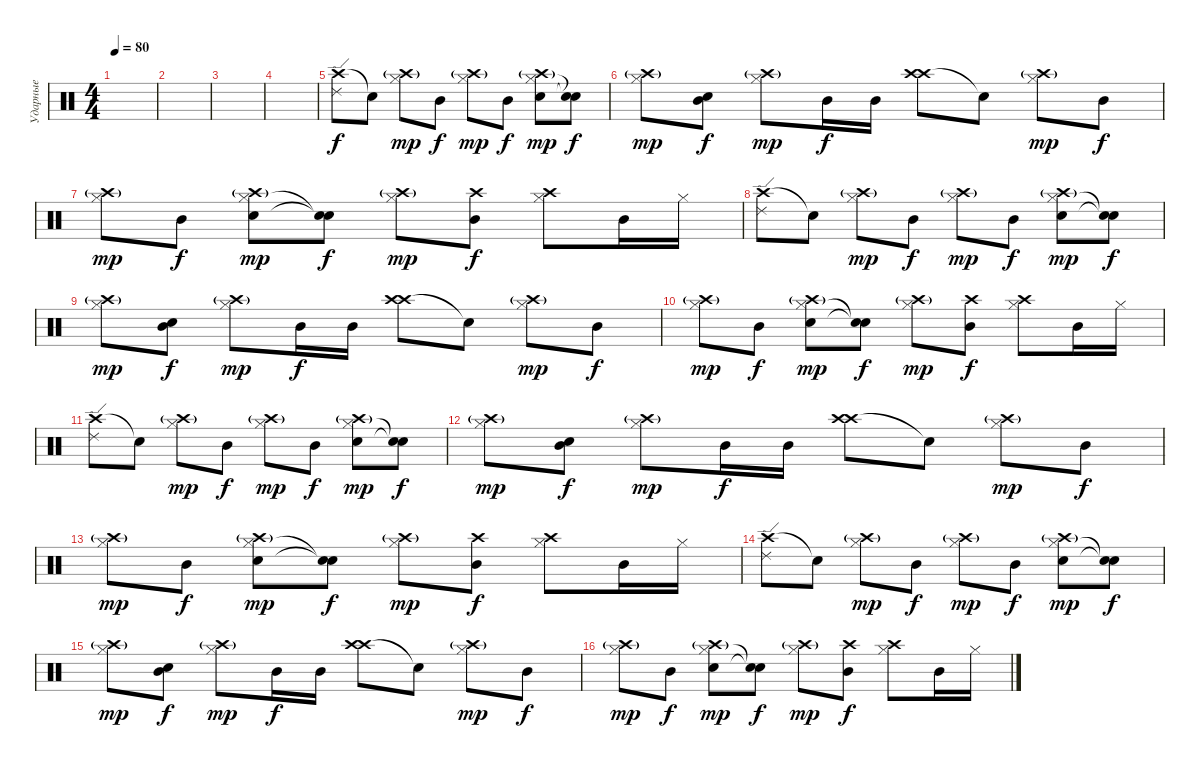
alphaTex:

\track ("Ударные" "Ударные") {instrument percussion}
\staff {score}
\articulation defaults
\ts (4 4)
\tempo 80
\clef neutral
\ks c
|
|
|
|
("Crash high (hit)" "Ride (edge) 2").8 "Snare (hit)"{t}.8 ("Hi-Hat (closed)" "Crash high (hit)"{g}).8{dy mp} "Mid Tom (hit)".8{dy f} ("Hi-Hat (closed)" "Crash high (hit)"{g}).8{dy mp} "Mid Tom (hit)".8{dy f} ("Electric Snare (hit)" "Hi-Hat (closed)" "Crash high (hit)"{g}).8{dy mp} ("Snare (hit)"{t} "Snare (hit)"{t}).8{dy f} |
("Hi-Hat (closed)" "Crash high (hit)"{g}).8{dy mp} ("Mid Tom (hit)" "Electric Snare (hit)").8{dy f} ("Hi-Hat (closed)" "Crash high (hit)"{g}).8{dy mp} "Mid Tom (hit)".16{dy f} "Mid Tom (hit)".16 ("Crash high (hit)" "Crash high (hit)").8 "Snare (hit)"{t}.8 ("Hi-Hat (closed)" "Crash high (hit)"{g}).8{dy mp} "Mid Tom (hit)".8{dy f} |
("Hi-Hat (closed)" "Crash high (hit)"{g}).8{dy mp} "Mid Tom (hit)".8{dy f} ("Electric Snare (hit)" "Hi-Hat (closed)" "Crash high (hit)"{g}).8{dy mp} ("Snare (hit)"{t} "Snare (hit)"{t}).8{dy f} ("Hi-Hat (closed)" "Crash high (hit)"{g}).8{dy mp} ("Mid Tom (hit)" "Crash high (hit)").8{dy f} ("Hi-Hat (closed)" "Crash high (hit)").8 "Mid Tom (hit)".16 "Hi-Hat (closed)".16 |
("Crash high (hit)" "Ride (edge) 2").8 "Snare (hit)"{t}.8 ("Hi-Hat (closed)" "Crash high (hit)"{g}).8{dy mp} "Mid Tom (hit)".8{dy f} ("Hi-Hat (closed)" "Crash high (hit)"{g}).8{dy mp} "Mid Tom (hit)".8{dy f} ("Electric Snare (hit)" "Hi-Hat (closed)" "Crash high (hit)"{g}).8{dy mp} ("Snare (hit)"{t} "Snare (hit)"{t}).8{dy f} |
("Hi-Hat (closed)" "Crash high (hit)"{g}).8{dy mp} ("Mid Tom (hit)" "Electric Snare (hit)").8{dy f} ("Hi-Hat (closed)" "Crash high (hit)"{g}).8{dy mp} "Mid Tom (hit)".16{dy f} "Mid Tom (hit)".16 ("Crash high (hit)" "Crash high (hit)").8 "Snare (hit)"{t}.8 ("Hi-Hat (closed)" "Crash high (hit)"{g}).8{dy mp} "Mid Tom (hit)".8{dy f} |
("Hi-Hat (closed)" "Crash high (hit)"{g}).8{dy mp} "Mid Tom (hit)".8{dy f} ("Electric Snare (hit)" "Hi-Hat (closed)" "Crash high (hit)"{g}).8{dy mp} ("Snare (hit)"{t} "Snare (hit)"{t}).8{dy f} ("Hi-Hat (closed)" "Crash high (hit)"{g}).8{dy mp} ("Mid Tom (hit)" "Crash high (hit)").8{dy f} ("Hi-Hat (closed)" "Crash high (hit)").8 "Mid Tom (hit)".16 "Hi-Hat (closed)".16 |
("Crash high (hit)" "Ride (edge) 2").8 "Snare (hit)"{t}.8 ("Hi-Hat (closed)" "Crash high (hit)"{g}).8{dy mp} "Mid Tom (hit)".8{dy f} ("Hi-Hat (closed)" "Crash high (hit)"{g}).8{dy mp} "Mid Tom (hit)".8{dy f} ("Electric Snare (hit)" "Hi-Hat (closed)" "Crash high (hit)"{g}).8{dy mp} ("Snare (hit)"{t} "Snare (hit)"{t}).8{dy f} |
("Hi-Hat (closed)" "Crash high (hit)"{g}).8{dy mp} ("Mid Tom (hit)" "Electric Snare (hit)").8{dy f} ("Hi-Hat (closed)" "Crash high (hit)"{g}).8{dy mp} "Mid Tom (hit)".16{dy f} "Mid Tom (hit)".16 ("Crash high (hit)" "Crash high (hit)").8 "Snare (hit)"{t}.8 ("Hi-Hat (closed)" "Crash high (hit)"{g}).8{dy mp} "Mid Tom (hit)".8{dy f} |
("Hi-Hat (closed)" "Crash high (hit)"{g}).8{dy mp} "Mid Tom (hit)".8{dy f} ("Electric Snare (hit)" "Hi-Hat (closed)" "Crash high (hit)"{g}).8{dy mp} ("Snare (hit)"{t} "Snare (hit)"{t}).8{dy f} ("Hi-Hat (closed)" "Crash high (hit)"{g}).8{dy mp} ("Mid Tom (hit)" "Crash high (hit)").8{dy f} ("Hi-Hat (closed)" "Crash high (hit)").8 "Mid Tom (hit)".16 "Hi-Hat (closed)".16 |
("Crash high (hit)" "Ride (edge) 2").8 "Snare (hit)"{t}.8 ("Hi-Hat (closed)" "Crash high (hit)"{g}).8{dy mp} "Mid Tom (hit)".8{dy f} ("Hi-Hat (closed)" "Crash high (hit)"{g}).8{dy mp} "Mid Tom (hit)".8{dy f} ("Electric Snare (hit)" "Hi-Hat (closed)" "Crash high (hit)"{g}).8{dy mp} ("Snare (hit)"{t} "Snare (hit)"{t}).8{dy f} |
("Hi-Hat (closed)" "Crash high (hit)"{g}).8{dy mp} ("Mid Tom (hit)" "Electric Snare (hit)").8{dy f} ("Hi-Hat (closed)" "Crash high (hit)"{g}).8{dy mp} "Mid Tom (hit)".16{dy f} "Mid Tom (hit)".16 ("Crash high (hit)" "Crash high (hit)").8 "Snare (hit)"{t}.8 ("Hi-Hat (closed)" "Crash high (hit)"{g}).8{dy mp} "Mid Tom (hit)".8{dy f} |
("Hi-Hat (closed)" "Crash high (hit)"{g}).8{dy mp} "Mid Tom (hit)".8{dy f} ("Electric Snare (hit)" "Hi-Hat (closed)" "Crash high (hit)"{g}).8{dy mp} ("Snare (hit)"{t} "Snare (hit)"{t}).8{dy f} ("Hi-Hat (closed)" "Crash high (hit)"{g}).8{dy mp} ("Mid Tom (hit)" "Crash high (hit)").8{dy f} ("Hi-Hat (closed)" "Crash high (hit)").8 "Mid Tom (hit)".16 "Hi-Hat (closed)".16
